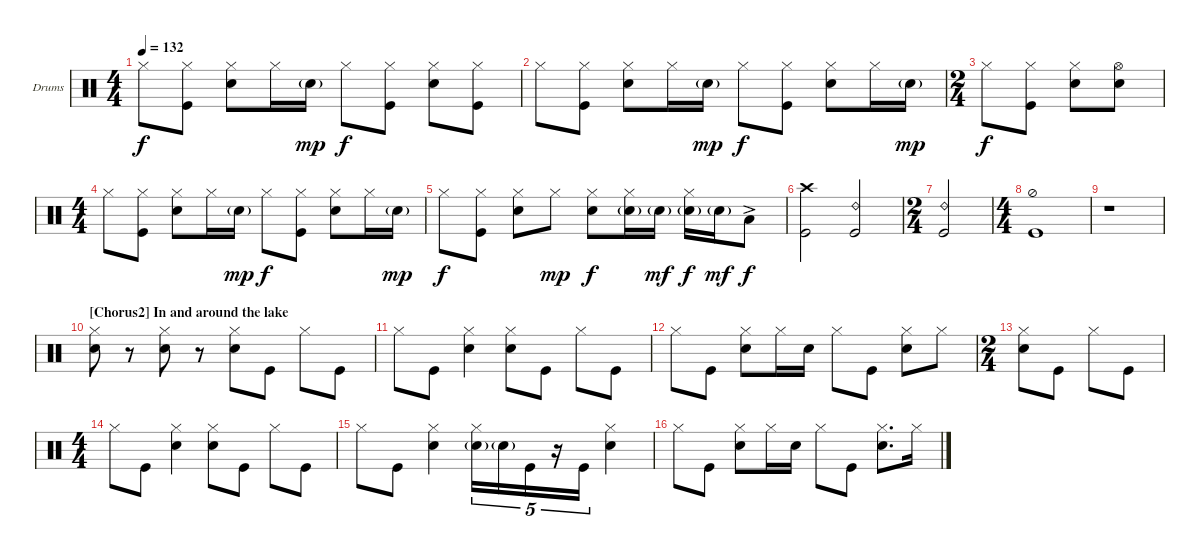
\bracketExtendMode groupsimilarinstruments
\firstSystemTrackNameOrientation horizontal
\otherSystemsTrackNameOrientation horizontal
\track ("Drumkit" "Drums") {instrument percussion}
\staff {score}
\articulation defaults
\ts (4 4)
\tempo 132
\clef neutral
\ks aminor "Hi-Hat (closed)".8{dy f}
("Hi-Hat (closed)" "Kick (hit)").8 ("Snare (hit) 2" "Hi-Hat (closed)").8 "Hi-Hat (closed)".16 "Snare (hit) 2"{g}.16{dy mp} "Hi-Hat (closed)".8{dy f} ("Kick (hit)" "Hi-Hat (closed)").8 ("Snare (hit) 2" "Hi-Hat (closed)").8 ("Hi-Hat (closed)" "Kick (hit)").8 |
"Hi-Hat (closed)".8 ("Hi-Hat (closed)" "Kick (hit)").8 ("Snare (hit) 2" "Hi-Hat (closed)").8 "Hi-Hat (closed)".16 "Snare (hit) 2"{g}.16{dy mp} "Hi-Hat (closed)".8{dy f} ("Kick (hit)" "Hi-Hat (closed)").8 ("Snare (hit) 2" "Hi-Hat (closed)").8 "Hi-Hat (closed)".16 "Snare (hit) 2"{g}.16{dy mp} |
\ts (2 4)
"Hi-Hat (closed)".8{dy f} ("Hi-Hat (closed)" "Kick (hit)").8 ("Snare (hit) 2" "Hi-Hat (closed)").8 ("Hi-Hat (open)" "Snare (hit) 2").8 |
\ts (4 4)
"Hi-Hat (closed)".8 ("Hi-Hat (closed)" "Kick (hit)").8 ("Snare (hit) 2" "Hi-Hat (closed)").8 "Hi-Hat (closed)".16 "Snare (hit) 2"{g}.16{dy mp} "Hi-Hat (closed)".8{dy f} ("Kick (hit)" "Hi-Hat (closed)").8 ("Snare (hit) 2" "Hi-Hat (closed)").8 "Hi-Hat (closed)".16 "Snare (hit) 2"{g}.16{dy mp} |
"Hi-Hat (closed)".8{dy f} ("Kick (hit)" "Hi-Hat (closed)").8 ("Snare (hit) 2" "Hi-Hat (closed)").8 "Hi-Hat (closed)".8{dy mp} ("Snare (hit) 2" "Hi-Hat (closed)").8{dy f} ("Snare (hit) 2"{g} "Hi-Hat (closed)").16 "Snare (hit) 2"{g}.16{dy mf} ("Snare (hit) 2"{g} "Hi-Hat (closed)").16{dy f} "Snare (hit) 2"{g}.16{dy mf} "Low Tom (hit)"{ac}.8{dy f} |
("Kick (hit)" "Crash high (hit)").2 ("Kick (hit)" "Ride (bell) 2").2 |
\ts (2 4)
("Kick (hit)" "Ride (bell) 2").2 |
\ts (4 4)
("Kick (hit)" "Hi-Hat (half)").1 |
r.1 |
\section ("" "[Chorus2] In and around the lake")
("Hi-Hat (closed)" "Snare (hit) 2").8 r.8 ("Hi-Hat (closed)" "Snare (hit) 2").8 r.8 ("Hi-Hat (closed)" "Snare (hit) 2").8 "Kick (hit)".8 "Hi-Hat (closed)".8 "Kick (hit)".8 |
"Hi-Hat (closed)".8 "Kick (hit)".8 ("Hi-Hat (closed)" "Snare (hit) 2").4 ("Hi-Hat (closed)" "Snare (hit) 2").8 "Kick (hit)".8 "Hi-Hat (closed)".8 "Kick (hit)".8 |
"Hi-Hat (closed)".8 "Kick (hit)".8 ("Hi-Hat (closed)" "Snare (hit) 2").8 "Hi-Hat (closed)".16 "Snare (hit) 2".16 "Hi-Hat (closed)".8 "Kick (hit)".8 ("Hi-Hat (closed)" "Snare (hit) 2").8 "Hi-Hat (closed)".8 |
\ts (2 4)
("Hi-Hat (closed)" "Snare (hit) 2").8 "Kick (hit)".8 "Hi-Hat (closed)".8 "Kick (hit)".8 |
\ts (4 4)
"Hi-Hat (closed)".8 "Kick (hit)".8 ("Hi-Hat (closed)" "Snare (hit) 2").4 ("Hi-Hat (closed)" "Snare (hit) 2").8 "Kick (hit)".8 "Hi-Hat (closed)".8 "Kick (hit)".8 |
"Hi-Hat (closed)".8 "Kick (hit)".8 ("Hi-Hat (closed)" "Snare (hit) 2").4 ("Hi-Hat (closed)" "Snare (hit) 2"{g}).16{tu (5 4)} "Snare (hit) 2"{g}.16{tu (5 4)} "Kick (hit)".16{tu (5 4)} r.16{tu (5 4)} "Kick (hit)".16{tu (5 4)} ("Hi-Hat (closed)" "Snare (hit) 2").4 |
"Hi-Hat (closed)".8 "Kick (hit)".8 ("Hi-Hat (closed)" "Snare (hit) 2").8 "Hi-Hat (closed)".16 "Snare (hit) 2".16 "Hi-Hat (closed)".8 "Kick (hit)".8 ("Hi-Hat (closed)" "Snare (hit) 2").8{d} "Hi-Hat (closed)".16
